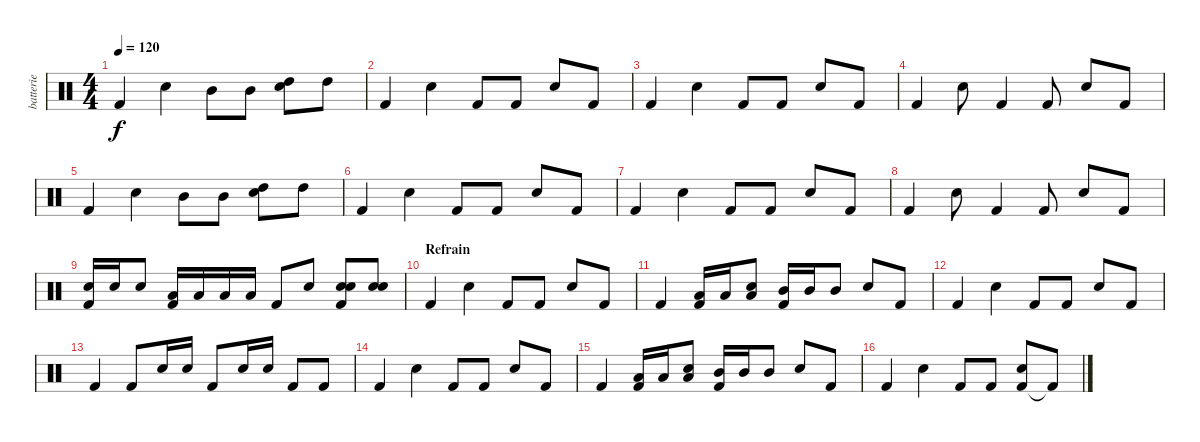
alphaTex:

\track ("batterie" "batterie") {instrument percussion}
\staff {score}
\articulation defaults
\ts (4 4)
\tempo 120
\clef neutral
\ks c "Kick (hit) 2".4{dy f} "Electric Snare (hit)".4 "Mid Tom (hit)".8 "Mid Tom (hit)".8
("Electric Snare (hit)" "High Tom (hit)").8 "High Tom (hit)".8 |
"Kick (hit) 2".4 "Electric Snare (hit)".4 "Kick (hit) 2".8 "Kick (hit) 2".8 "Electric Snare (hit)".8 "Kick (hit) 2".8 |
"Kick (hit) 2".4 "Electric Snare (hit)".4 "Kick (hit) 2".8 "Kick (hit) 2".8 "Electric Snare (hit)".8 "Kick (hit) 2".8 |
"Kick (hit) 2".4 "Electric Snare (hit)".8 "Kick (hit) 2".4 "Kick (hit) 2".8 "Electric Snare (hit)".8 "Kick (hit) 2".8 |
"Kick (hit) 2".4 "Electric Snare (hit)".4 "Mid Tom (hit)".8 "Mid Tom (hit)".8 ("Electric Snare (hit)" "High Tom (hit)").8 "High Tom (hit)".8 |
"Kick (hit) 2".4 "Electric Snare (hit)".4 "Kick (hit) 2".8 "Kick (hit) 2".8 "Electric Snare (hit)".8 "Kick (hit) 2".8 |
"Kick (hit) 2".4 "Electric Snare (hit)".4 "Kick (hit) 2".8 "Kick (hit) 2".8 "Electric Snare (hit)".8 "Kick (hit) 2".8 |
"Kick (hit) 2".4 "Electric Snare (hit)".8 "Kick (hit) 2".4 "Kick (hit) 2".8 "Electric Snare (hit)".8 "Kick (hit) 2".8 |
("Kick (hit) 2" "Electric Snare (hit)").16 "Electric Snare (hit)".16 "Electric Snare (hit)".8 ("Kick (hit) 2" "Low Tom (hit)").16 "Low Tom (hit)".16 "Low Tom (hit)".16 "Low Tom (hit)".16 "Kick (hit) 2".8 "Electric Snare (hit)".8 ("Kick (hit) 2" "Electric Snare (hit)" "Electric Snare (hit)").8 ("Electric Snare (hit)" "Electric Snare (hit)").8 |
\section ("" "Refrain")
"Kick (hit) 2".4 "Electric Snare (hit)".4 "Kick (hit) 2".8 "Kick (hit) 2".8 "Electric Snare (hit)".8 "Kick (hit) 2".8 |
"Kick (hit) 2".4 ("Kick (hit) 2" "Low Tom (hit)").16 "Low Tom (hit)".16 ("Electric Snare (hit)" "Low Tom (hit)").8 ("Kick (hit) 2" "Mid Tom (hit)").16 "Mid Tom (hit)".16 "Mid Tom (hit)".8 "Electric Snare (hit)".8 "Kick (hit) 2".8 |
"Kick (hit) 2".4 "Electric Snare (hit)".4 "Kick (hit) 2".8 "Kick (hit) 2".8 "Electric Snare (hit)".8 "Kick (hit) 2".8 |
"Kick (hit) 2".4 "Kick (hit) 2".8 "Electric Snare (hit)".16 "Electric Snare (hit)".16 "Kick (hit) 2".8 "Electric Snare (hit)".16 "Electric Snare (hit)".16 "Kick (hit) 2".8 "Kick (hit) 2".8 |
"Kick (hit) 2".4 "Electric Snare (hit)".4 "Kick (hit) 2".8 "Kick (hit) 2".8 "Electric Snare (hit)".8 "Kick (hit) 2".8 |
"Kick (hit) 2".4 ("Kick (hit) 2" "Low Tom (hit)").16 "Low Tom (hit)".16 ("Electric Snare (hit)" "Low Tom (hit)").8 ("Kick (hit) 2" "Mid Tom (hit)").16 "Mid Tom (hit)".16 "Mid Tom (hit)".8 "Electric Snare (hit)".8 "Kick (hit) 2".8 |
"Kick (hit) 2".4 "Electric Snare (hit)".4 "Kick (hit) 2".8 "Kick (hit) 2".8 ("Kick (hit) 2" "Electric Snare (hit)").8 "Kick (hit) 2"{t}.8
